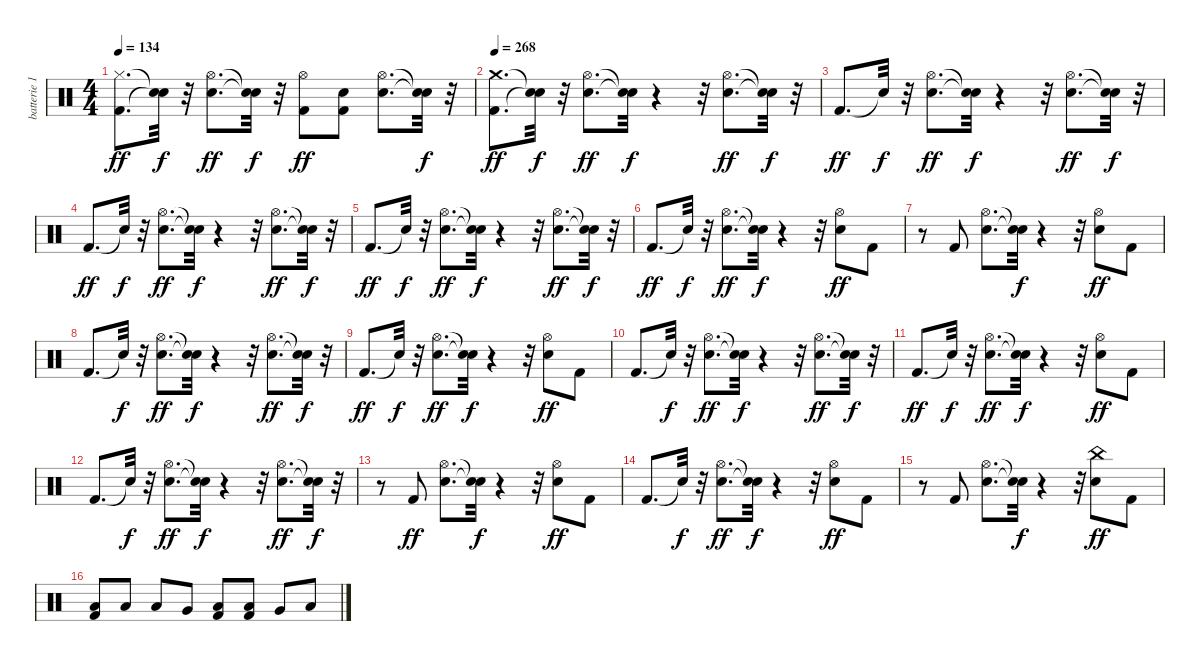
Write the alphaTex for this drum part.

\track ("batterie 1" "batterie 1") {instrument percussion}
\staff {score}
\articulation defaults
\ts (4 4)
\tempo 134
\clef neutral
\ks c
("Kick (hit) 2" "Hi-Hat (closed)").8{d dy ff} ("Snare (hit)"{t} "Snare (hit)"{t}).32{dy f} r.32 ("Electric Snare (hit)" "Hi-Hat (open)").8{d dy ff} ("Snare (hit)"{t} "Snare (hit)"{t}).32{dy f} r.32 ("Kick (hit) 2" "Hi-Hat (open)").8{dy ff} ("Kick (hit) 2" "Electric Snare (hit)").8 ("Electric Snare (hit)" "Hi-Hat (open)").8{d} ("Snare (hit)"{t} "Snare (hit)"{t}).32{dy f} r.32 |
\tempo 268
("Kick (hit) 2" "Crash medium (hit)").8{d dy ff} ("Snare (hit)"{t} "Snare (hit)"{t}).32{dy f} r.32 ("Electric Snare (hit)" "Hi-Hat (open)").8{d dy ff} ("Snare (hit)"{t} "Snare (hit)"{t}).32{dy f} r.4 r.32 ("Electric Snare (hit)" "Hi-Hat (open)").8{d dy ff} ("Snare (hit)"{t} "Snare (hit)"{t}).32{dy f} r.32 |
"Kick (hit) 2".8{d dy ff} "Snare (hit)"{t}.32{dy f} r.32 ("Electric Snare (hit)" "Hi-Hat (open)").8{d dy ff} ("Snare (hit)"{t} "Snare (hit)"{t}).32{dy f} r.4 r.32 ("Electric Snare (hit)" "Hi-Hat (open)").8{d dy ff} ("Snare (hit)"{t} "Snare (hit)"{t}).32{dy f} r.32 |
"Kick (hit) 2".8{d dy ff} "Snare (hit)"{t}.32{dy f} r.32 ("Electric Snare (hit)" "Hi-Hat (open)").8{d dy ff} ("Snare (hit)"{t} "Snare (hit)"{t}).32{dy f} r.4 r.32 ("Electric Snare (hit)" "Hi-Hat (open)").8{d dy ff} ("Snare (hit)"{t} "Snare (hit)"{t}).32{dy f} r.32 |
"Kick (hit) 2".8{d dy ff} "Snare (hit)"{t}.32{dy f} r.32 ("Electric Snare (hit)" "Hi-Hat (open)").8{d dy ff} ("Snare (hit)"{t} "Snare (hit)"{t}).32{dy f} r.4 r.32 ("Electric Snare (hit)" "Hi-Hat (open)").8{d dy ff} ("Snare (hit)"{t} "Snare (hit)"{t}).32{dy f} r.32 |
"Kick (hit) 2".8{d dy ff} "Snare (hit)"{t}.32{dy f} r.32 ("Electric Snare (hit)" "Hi-Hat (open)").8{d dy ff} ("Snare (hit)"{t} "Snare (hit)"{t}).32{dy f} r.4 r.32 ("Electric Snare (hit)" "Hi-Hat (open)").8{dy ff} "Kick (hit) 2".8 |
r.8 "Kick (hit) 2".8 ("Electric Snare (hit)" "Hi-Hat (open)").8{d} ("Snare (hit)"{t} "Snare (hit)"{t}).32{dy f} r.4 r.32 ("Electric Snare (hit)" "Hi-Hat (open)").8{dy ff} "Kick (hit) 2".8 |
"Kick (hit) 2".8{d} "Snare (hit)"{t}.32{dy f} r.32 ("Electric Snare (hit)" "Hi-Hat (open)").8{d dy ff} ("Snare (hit)"{t} "Snare (hit)"{t}).32{dy f} r.4 r.32 ("Electric Snare (hit)" "Hi-Hat (open)").8{d dy ff} ("Snare (hit)"{t} "Snare (hit)"{t}).32{dy f} r.32 |
"Kick (hit) 2".8{d dy ff} "Snare (hit)"{t}.32{dy f} r.32 ("Electric Snare (hit)" "Hi-Hat (open)").8{d dy ff} ("Snare (hit)"{t} "Snare (hit)"{t}).32{dy f} r.4 r.32 ("Electric Snare (hit)" "Hi-Hat (open)").8{dy ff} "Kick (hit) 2".8 |
"Kick (hit) 2".8{d} "Snare (hit)"{t}.32{dy f} r.32 ("Electric Snare (hit)" "Hi-Hat (open)").8{d dy ff} ("Snare (hit)"{t} "Snare (hit)"{t}).32{dy f} r.4 r.32 ("Electric Snare (hit)" "Hi-Hat (open)").8{d dy ff} ("Snare (hit)"{t} "Snare (hit)"{t}).32{dy f} r.32 |
"Kick (hit) 2".8{d dy ff} "Snare (hit)"{t}.32{dy f} r.32 ("Electric Snare (hit)" "Hi-Hat (open)").8{d dy ff} ("Snare (hit)"{t} "Snare (hit)"{t}).32{dy f} r.4 r.32 ("Electric Snare (hit)" "Hi-Hat (open)").8{dy ff} "Kick (hit) 2".8 |
"Kick (hit) 2".8{d} "Snare (hit)"{t}.32{dy f} r.32 ("Electric Snare (hit)" "Hi-Hat (open)").8{d dy ff} ("Snare (hit)"{t} "Snare (hit)"{t}).32{dy f} r.4 r.32 ("Electric Snare (hit)" "Hi-Hat (open)").8{d dy ff} ("Snare (hit)"{t} "Snare (hit)"{t}).32{dy f} r.32 |
r.8 "Kick (hit) 2".8{dy ff} ("Electric Snare (hit)" "Hi-Hat (open)").8{d} ("Snare (hit)"{t} "Snare (hit)"{t}).32{dy f} r.4 r.32 ("Electric Snare (hit)" "Hi-Hat (open)").8{dy ff} "Kick (hit) 2".8 |
"Kick (hit) 2".8{d} "Snare (hit)"{t}.32{dy f} r.32 ("Electric Snare (hit)" "Hi-Hat (open)").8{d dy ff} ("Snare (hit)"{t} "Snare (hit)"{t}).32{dy f} r.4 r.32 ("Electric Snare (hit)" "Hi-Hat (open)").8{dy ff} "Kick (hit) 2".8 |
r.8 "Kick (hit) 2".8 ("Electric Snare (hit)" "Hi-Hat (open)").8{d} ("Snare (hit)"{t} "Snare (hit)"{t}).32{dy f} r.4 r.32 ("Electric Snare (hit)" "China (hit)").8{dy ff} "Kick (hit) 2".8 |
("Kick (hit) 2" "Low Floor Tom (hit)").8 "Low Floor Tom (hit)".8 "Low Tom (hit)".8 "Very Low Tom (hit)".8 ("Kick (hit) 2" "Low Floor Tom (hit)").8 ("Kick (hit) 2" "Low Tom (hit)").8 "Very Low Tom (hit)".8 "Low Floor Tom (hit)".8
